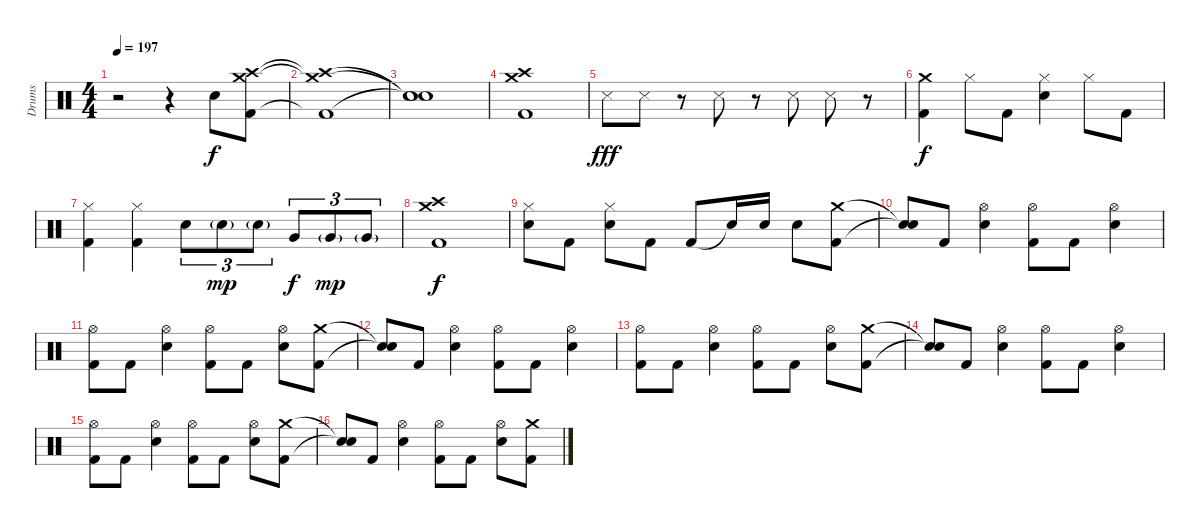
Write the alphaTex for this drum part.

\track ("Drums" "Drums") {instrument percussion}
\staff {score}
\articulation defaults
\ts (4 4)
\tempo 197
\clef neutral
\ks c
r.2{dy f} r.4 "Electric Snare (hit)".8 ("Crash medium (hit)" "Crash high (hit)" "Kick (hit) 2").8 |
("Crash medium (hit)"{t} "Crash high (hit)"{t} "Kick (hit) 2"{t}).1 |
("Snare (hit)"{t} "Snare (hit)"{t} "Snare (hit)"{t}).1 |
("Crash medium (hit)" "Crash high (hit)" "Kick (hit) 2").1 |
"Snare (side stick) 3".8{dy fff} "Snare (side stick) 3".8 r.8 "Snare (side stick) 3".8 r.8 "Snare (side stick) 3".8 "Snare (side stick) 3".8 r.8 |
("Crash medium (hit)" "Kick (hit) 2").4{dy f} "Hi-Hat (closed)".8 "Kick (hit) 2".8 ("Hi-Hat (closed)" "Electric Snare (hit)").4 "Hi-Hat (closed)".8 "Kick (hit) 2".8 |
("Hi-Hat (closed)" "Kick (hit) 2").4 ("Hi-Hat (closed)" "Kick (hit) 2").4 "Electric Snare (hit)".8{tu (3 2)} "Electric Snare (hit)"{g}.8{tu (3 2) dy mp} "Electric Snare (hit)"{g}.8{tu (3 2)} "Very Low Tom (hit)".8{tu (3 2) dy f} "Very Low Tom (hit)"{g}.8{tu (3 2) dy mp} "Very Low Tom (hit)"{g}.8{tu (3 2)} |
("Crash medium (hit)" "Crash high (hit)" "Kick (hit) 2").1{dy f} |
("Hi-Hat (closed)" "Electric Snare (hit)").8 "Kick (hit) 2".8 ("Hi-Hat (closed)" "Electric Snare (hit)").8 "Kick (hit) 2".8 "Kick (hit) 2".8 "Snare (hit)"{t}.16 "Electric Snare (hit)".16 "Electric Snare (hit)".8 ("Crash medium (hit)" "Kick (hit) 2").8 |
\section ("" "")
("Snare (hit)"{t} "Snare (hit)"{t}).8 "Kick (hit) 2".8 ("Hi-Hat (open)" "Electric Snare (hit)").4 ("Hi-Hat (open)" "Kick (hit) 2").8 "Kick (hit) 2".8 ("Hi-Hat (open)" "Electric Snare (hit)").4 |
("Hi-Hat (open)" "Kick (hit) 2").8 "Kick (hit) 2".8 ("Hi-Hat (open)" "Electric Snare (hit)").4 ("Hi-Hat (open)" "Kick (hit) 2").8 "Kick (hit) 2".8 ("Hi-Hat (open)" "Electric Snare (hit)").8 ("Crash medium (hit)" "Kick (hit) 2").8 |
("Snare (hit)"{t} "Snare (hit)"{t}).8 "Kick (hit) 2".8 ("Hi-Hat (open)" "Electric Snare (hit)").4 ("Hi-Hat (open)" "Kick (hit) 2").8 "Kick (hit) 2".8 ("Hi-Hat (open)" "Electric Snare (hit)").4 |
("Hi-Hat (open)" "Kick (hit) 2").8 "Kick (hit) 2".8 ("Hi-Hat (open)" "Electric Snare (hit)").4 ("Hi-Hat (open)" "Kick (hit) 2").8 "Kick (hit) 2".8 ("Hi-Hat (open)" "Electric Snare (hit)").8 ("Crash medium (hit)" "Kick (hit) 2").8 |
("Snare (hit)"{t} "Snare (hit)"{t}).8 "Kick (hit) 2".8 ("Hi-Hat (open)" "Electric Snare (hit)").4 ("Hi-Hat (open)" "Kick (hit) 2").8 "Kick (hit) 2".8 ("Hi-Hat (open)" "Electric Snare (hit)").4 |
("Hi-Hat (open)" "Kick (hit) 2").8 "Kick (hit) 2".8 ("Hi-Hat (open)" "Electric Snare (hit)").4 ("Hi-Hat (open)" "Kick (hit) 2").8 "Kick (hit) 2".8 ("Hi-Hat (open)" "Electric Snare (hit)").8 ("Crash medium (hit)" "Kick (hit) 2").8 |
("Snare (hit)"{t} "Snare (hit)"{t}).8 "Kick (hit) 2".8 ("Hi-Hat (open)" "Electric Snare (hit)").4 ("Hi-Hat (open)" "Kick (hit) 2").8 "Kick (hit) 2".8 ("Hi-Hat (open)" "Electric Snare (hit)").8 ("Crash medium (hit)" "Kick (hit) 2").8
